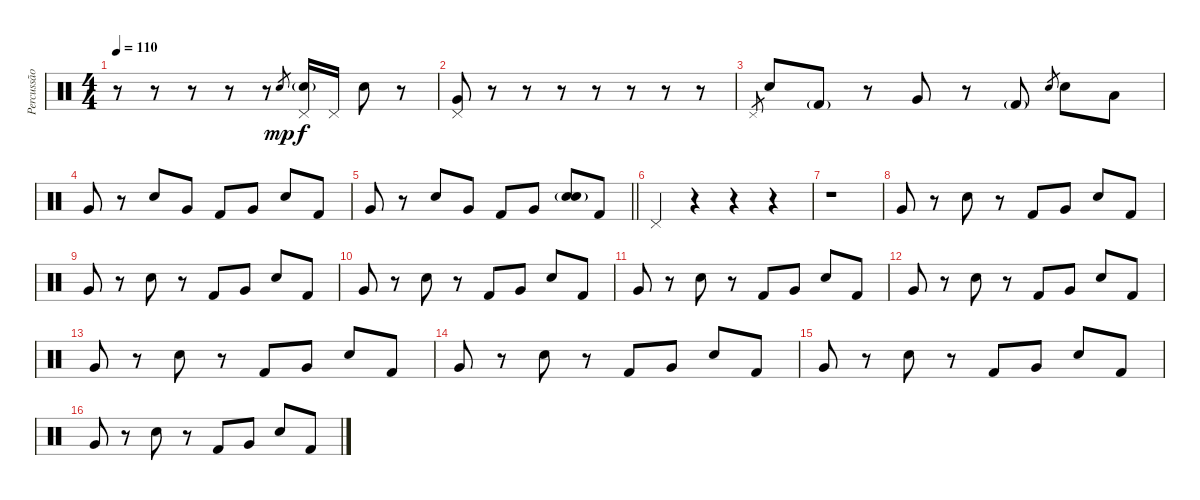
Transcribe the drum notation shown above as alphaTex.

\track ("Percussão" "Percussão") {instrument percussion}
\staff {score}
\articulation defaults
\ts (4 4)
\tempo 110
\clef neutral
\ks c
r.8{dy f volume 12} r.8 r.8 r.8 r.8 "Electric Snare (hit)".8{gr dy mp} ("Pedal Hi-Hat (hit)" "Electric Snare (hit)"{g}).16{dy f} "Pedal Hi-Hat (hit)".16 "Electric Snare (hit)".8 r.8 |
("Pedal Hi-Hat (hit)" "Very Low Tom (hit)").8 r.8 r.8 r.8 r.8 r.8 r.8 r.8 |
"Pedal Hi-Hat (hit)".8{gr} "Electric Snare (hit)".8 "Kick (hit) 2"{g}.8 r.8 "Very Low Tom (hit)".8 r.8 "Kick (hit) 2"{g}.8 "Electric Snare (hit)".8{gr} "Electric Snare (hit)".8 "Low Floor Tom (hit)".8 |
"Very Low Tom (hit)".8 r.8 "Electric Snare (hit)".8 "Very Low Tom (hit)".8 "Kick (hit) 2".8 "Very Low Tom (hit)".8 "Electric Snare (hit)".8 "Kick (hit) 2".8 |
\barLineRight lightlight "Very Low Tom (hit)".8
r.8 "Electric Snare (hit)".8 "Very Low Tom (hit)".8 "Kick (hit) 2".8 "Very Low Tom (hit)".8 ("Electric Snare (hit)"{g} "Snare (hit) 2").8 "Kick (hit) 2".8 |
"Pedal Hi-Hat (hit)".4 r.4 r.4 r.4 |
r.1 |
"Very Low Tom (hit)".8{volume 16} r.8 "Electric Snare (hit)".8 r.8 "Kick (hit) 2".8 "Very Low Tom (hit)".8 "Electric Snare (hit)".8 "Kick (hit) 2".8 |
"Very Low Tom (hit)".8 r.8 "Electric Snare (hit)".8 r.8 "Kick (hit) 2".8 "Very Low Tom (hit)".8 "Electric Snare (hit)".8 "Kick (hit) 2".8 |
"Very Low Tom (hit)".8 r.8 "Electric Snare (hit)".8 r.8 "Kick (hit) 2".8 "Very Low Tom (hit)".8 "Electric Snare (hit)".8 "Kick (hit) 2".8 |
"Very Low Tom (hit)".8 r.8 "Electric Snare (hit)".8 r.8 "Kick (hit) 2".8 "Very Low Tom (hit)".8 "Electric Snare (hit)".8 "Kick (hit) 2".8 |
"Very Low Tom (hit)".8 r.8 "Electric Snare (hit)".8 r.8 "Kick (hit) 2".8 "Very Low Tom (hit)".8 "Electric Snare (hit)".8 "Kick (hit) 2".8 |
"Very Low Tom (hit)".8 r.8 "Electric Snare (hit)".8 r.8 "Kick (hit) 2".8 "Very Low Tom (hit)".8 "Electric Snare (hit)".8 "Kick (hit) 2".8 |
"Very Low Tom (hit)".8 r.8 "Electric Snare (hit)".8 r.8 "Kick (hit) 2".8 "Very Low Tom (hit)".8 "Electric Snare (hit)".8 "Kick (hit) 2".8 |
"Very Low Tom (hit)".8 r.8 "Electric Snare (hit)".8 r.8 "Kick (hit) 2".8 "Very Low Tom (hit)".8 "Electric Snare (hit)".8 "Kick (hit) 2".8 |
"Very Low Tom (hit)".8 r.8 "Electric Snare (hit)".8 r.8 "Kick (hit) 2".8 "Very Low Tom (hit)".8 "Electric Snare (hit)".8 "Kick (hit) 2".8
